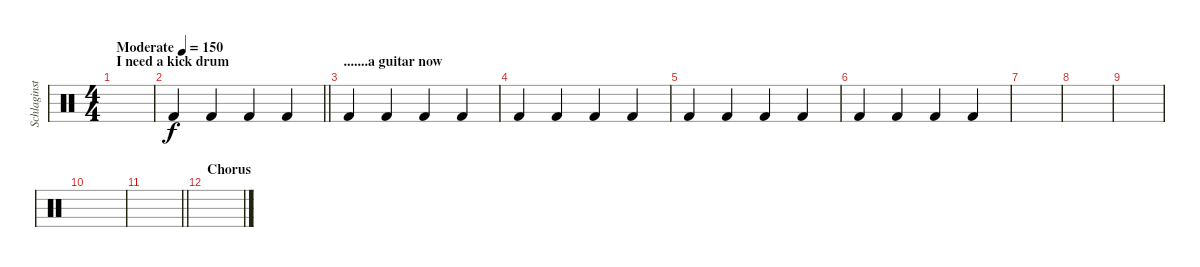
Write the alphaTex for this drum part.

\track ("Schlaginstrumente - Auswahl" "Schlaginst") {instrument percussion}
\staff {score}
\articulation defaults
\ts (4 4)
\section ("" "I need a kick drum")
\tempo (150 "Moderate")
\clef neutral
\ks c
|
\barLineRight lightlight "Kick (hit) 2".4 "Kick (hit) 2".4 "Kick (hit) 2".4 "Kick (hit) 2".4
|
\section ("" ".......a guitar now")
"Kick (hit) 2".4 "Kick (hit) 2".4 "Kick (hit) 2".4 "Kick (hit) 2".4 |
"Kick (hit) 2".4 "Kick (hit) 2".4 "Kick (hit) 2".4 "Kick (hit) 2".4 |
"Kick (hit) 2".4 "Kick (hit) 2".4 "Kick (hit) 2".4 "Kick (hit) 2".4 |
"Kick (hit) 2".4 "Kick (hit) 2".4 "Kick (hit) 2".4 "Kick (hit) 2".4 |
|
|
|
|
\barLineRight lightlight
|
\section ("" "Chorus")
